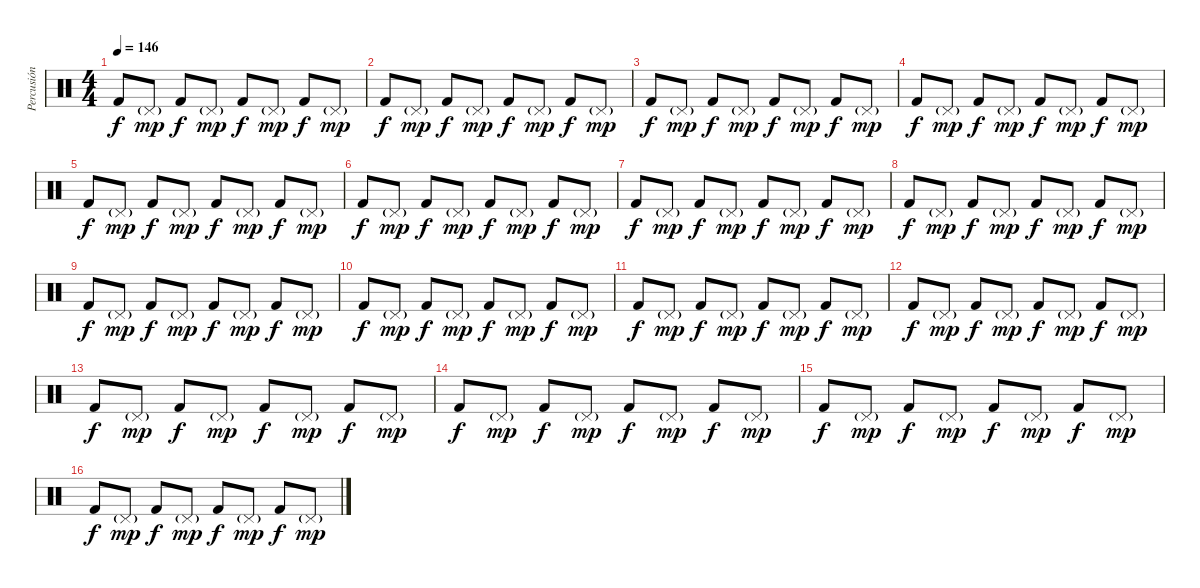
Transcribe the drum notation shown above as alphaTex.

\track ("Percusión" "Percusión") {instrument percussion}
\staff {score}
\articulation defaults
\ts (4 4)
\tempo 146
\clef neutral
\ks c "Kick (hit) 2".8{dy f} "Pedal Hi-Hat (hit)"{g}.8{dy mp} "Kick (hit) 2".8{dy f} "Pedal Hi-Hat (hit)"{g}.8{dy mp} "Kick (hit) 2".8{dy f} "Pedal Hi-Hat (hit)"{g}.8{dy mp} "Kick (hit) 2".8{dy f} "Pedal Hi-Hat (hit)"{g}.8{dy mp}
|
"Kick (hit) 2".8{dy f} "Pedal Hi-Hat (hit)"{g}.8{dy mp} "Kick (hit) 2".8{dy f} "Pedal Hi-Hat (hit)"{g}.8{dy mp} "Kick (hit) 2".8{dy f} "Pedal Hi-Hat (hit)"{g}.8{dy mp} "Kick (hit) 2".8{dy f} "Pedal Hi-Hat (hit)"{g}.8{dy mp} |
"Kick (hit) 2".8{dy f} "Pedal Hi-Hat (hit)"{g}.8{dy mp} "Kick (hit) 2".8{dy f} "Pedal Hi-Hat (hit)"{g}.8{dy mp} "Kick (hit) 2".8{dy f} "Pedal Hi-Hat (hit)"{g}.8{dy mp} "Kick (hit) 2".8{dy f} "Pedal Hi-Hat (hit)"{g}.8{dy mp} |
"Kick (hit) 2".8{dy f} "Pedal Hi-Hat (hit)"{g}.8{dy mp} "Kick (hit) 2".8{dy f} "Pedal Hi-Hat (hit)"{g}.8{dy mp} "Kick (hit) 2".8{dy f} "Pedal Hi-Hat (hit)"{g}.8{dy mp} "Kick (hit) 2".8{dy f} "Pedal Hi-Hat (hit)"{g}.8{dy mp} |
"Kick (hit) 2".8{dy f} "Pedal Hi-Hat (hit)"{g}.8{dy mp} "Kick (hit) 2".8{dy f} "Pedal Hi-Hat (hit)"{g}.8{dy mp} "Kick (hit) 2".8{dy f} "Pedal Hi-Hat (hit)"{g}.8{dy mp} "Kick (hit) 2".8{dy f} "Pedal Hi-Hat (hit)"{g}.8{dy mp} |
"Kick (hit) 2".8{dy f} "Pedal Hi-Hat (hit)"{g}.8{dy mp} "Kick (hit) 2".8{dy f} "Pedal Hi-Hat (hit)"{g}.8{dy mp} "Kick (hit) 2".8{dy f} "Pedal Hi-Hat (hit)"{g}.8{dy mp} "Kick (hit) 2".8{dy f} "Pedal Hi-Hat (hit)"{g}.8{dy mp} |
"Kick (hit) 2".8{dy f} "Pedal Hi-Hat (hit)"{g}.8{dy mp} "Kick (hit) 2".8{dy f} "Pedal Hi-Hat (hit)"{g}.8{dy mp} "Kick (hit) 2".8{dy f} "Pedal Hi-Hat (hit)"{g}.8{dy mp} "Kick (hit) 2".8{dy f} "Pedal Hi-Hat (hit)"{g}.8{dy mp} |
"Kick (hit) 2".8{dy f} "Pedal Hi-Hat (hit)"{g}.8{dy mp} "Kick (hit) 2".8{dy f} "Pedal Hi-Hat (hit)"{g}.8{dy mp} "Kick (hit) 2".8{dy f} "Pedal Hi-Hat (hit)"{g}.8{dy mp} "Kick (hit) 2".8{dy f} "Pedal Hi-Hat (hit)"{g}.8{dy mp} |
"Kick (hit) 2".8{dy f} "Pedal Hi-Hat (hit)"{g}.8{dy mp} "Kick (hit) 2".8{dy f} "Pedal Hi-Hat (hit)"{g}.8{dy mp} "Kick (hit) 2".8{dy f} "Pedal Hi-Hat (hit)"{g}.8{dy mp} "Kick (hit) 2".8{dy f} "Pedal Hi-Hat (hit)"{g}.8{dy mp} |
"Kick (hit) 2".8{dy f} "Pedal Hi-Hat (hit)"{g}.8{dy mp} "Kick (hit) 2".8{dy f} "Pedal Hi-Hat (hit)"{g}.8{dy mp} "Kick (hit) 2".8{dy f} "Pedal Hi-Hat (hit)"{g}.8{dy mp} "Kick (hit) 2".8{dy f} "Pedal Hi-Hat (hit)"{g}.8{dy mp} |
"Kick (hit) 2".8{dy f} "Pedal Hi-Hat (hit)"{g}.8{dy mp} "Kick (hit) 2".8{dy f} "Pedal Hi-Hat (hit)"{g}.8{dy mp} "Kick (hit) 2".8{dy f} "Pedal Hi-Hat (hit)"{g}.8{dy mp} "Kick (hit) 2".8{dy f} "Pedal Hi-Hat (hit)"{g}.8{dy mp} |
"Kick (hit) 2".8{dy f} "Pedal Hi-Hat (hit)"{g}.8{dy mp} "Kick (hit) 2".8{dy f} "Pedal Hi-Hat (hit)"{g}.8{dy mp} "Kick (hit) 2".8{dy f} "Pedal Hi-Hat (hit)"{g}.8{dy mp} "Kick (hit) 2".8{dy f} "Pedal Hi-Hat (hit)"{g}.8{dy mp} |
"Kick (hit) 2".8{dy f} "Pedal Hi-Hat (hit)"{g}.8{dy mp} "Kick (hit) 2".8{dy f} "Pedal Hi-Hat (hit)"{g}.8{dy mp} "Kick (hit) 2".8{dy f} "Pedal Hi-Hat (hit)"{g}.8{dy mp} "Kick (hit) 2".8{dy f} "Pedal Hi-Hat (hit)"{g}.8{dy mp} |
"Kick (hit) 2".8{dy f} "Pedal Hi-Hat (hit)"{g}.8{dy mp} "Kick (hit) 2".8{dy f} "Pedal Hi-Hat (hit)"{g}.8{dy mp} "Kick (hit) 2".8{dy f} "Pedal Hi-Hat (hit)"{g}.8{dy mp} "Kick (hit) 2".8{dy f} "Pedal Hi-Hat (hit)"{g}.8{dy mp} |
"Kick (hit) 2".8{dy f} "Pedal Hi-Hat (hit)"{g}.8{dy mp} "Kick (hit) 2".8{dy f} "Pedal Hi-Hat (hit)"{g}.8{dy mp} "Kick (hit) 2".8{dy f} "Pedal Hi-Hat (hit)"{g}.8{dy mp} "Kick (hit) 2".8{dy f} "Pedal Hi-Hat (hit)"{g}.8{dy mp} |
"Kick (hit) 2".8{dy f} "Pedal Hi-Hat (hit)"{g}.8{dy mp} "Kick (hit) 2".8{dy f} "Pedal Hi-Hat (hit)"{g}.8{dy mp} "Kick (hit) 2".8{dy f} "Pedal Hi-Hat (hit)"{g}.8{dy mp} "Kick (hit) 2".8{dy f} "Pedal Hi-Hat (hit)"{g}.8{dy mp}
